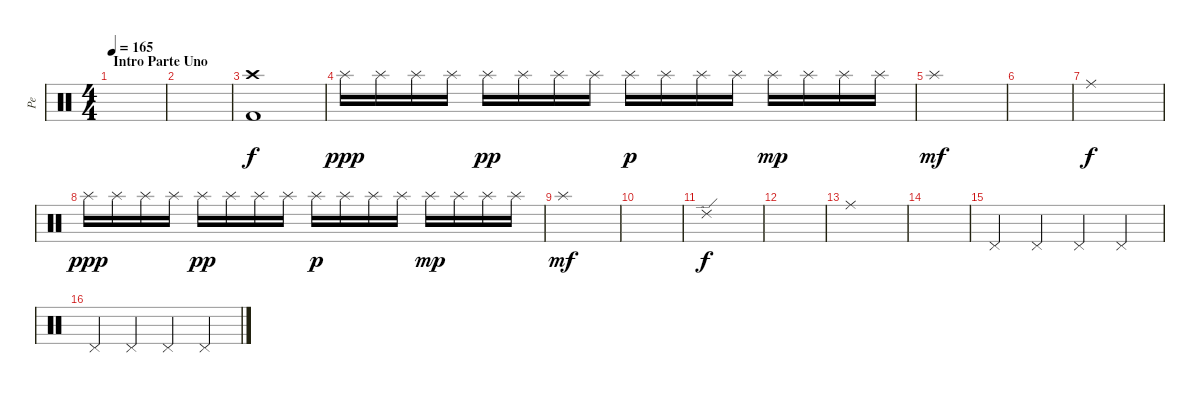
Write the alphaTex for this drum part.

\track ("Pe" "Pe") {instrument percussion}
\staff {score}
\articulation defaults
\ts (4 4)
\section ("" "Intro Parte Uno")
\tempo 165
\clef neutral
\ks c
|
|
("Kick (hit) 2" "Crash high (hit)").1 |
"Splash (hit)".16{dy ppp} "Splash (hit)".16 "Splash (hit)".16 "Splash (hit)".16 "Splash (hit)".16{dy pp} "Splash (hit)".16 "Splash (hit)".16 "Splash (hit)".16 "Splash (hit)".16{dy p} "Splash (hit)".16 "Splash (hit)".16 "Splash (hit)".16 "Splash (hit)".16{dy mp} "Splash (hit)".16 "Splash (hit)".16 "Splash (hit)".16 |
"Splash (hit)".1{dy mf} |
|
"Ride (middle)".1{dy f} |
"Splash (hit)".16{dy ppp} "Splash (hit)".16 "Splash (hit)".16 "Splash (hit)".16 "Splash (hit)".16{dy pp} "Splash (hit)".16 "Splash (hit)".16 "Splash (hit)".16 "Splash (hit)".16{dy p} "Splash (hit)".16 "Splash (hit)".16 "Splash (hit)".16 "Splash (hit)".16{dy mp} "Splash (hit)".16 "Splash (hit)".16 "Splash (hit)".16 |
"Splash (hit)".1{dy mf} |
|
"Ride (edge) 2".1{dy f} |
|
"Ride (middle)".1 |
|
"Pedal Hi-Hat (hit)".4{volume 16} "Pedal Hi-Hat (hit)".4 "Pedal Hi-Hat (hit)".4 "Pedal Hi-Hat (hit)".4 |
"Pedal Hi-Hat (hit)".4 "Pedal Hi-Hat (hit)".4 "Pedal Hi-Hat (hit)".4 "Pedal Hi-Hat (hit)".4
